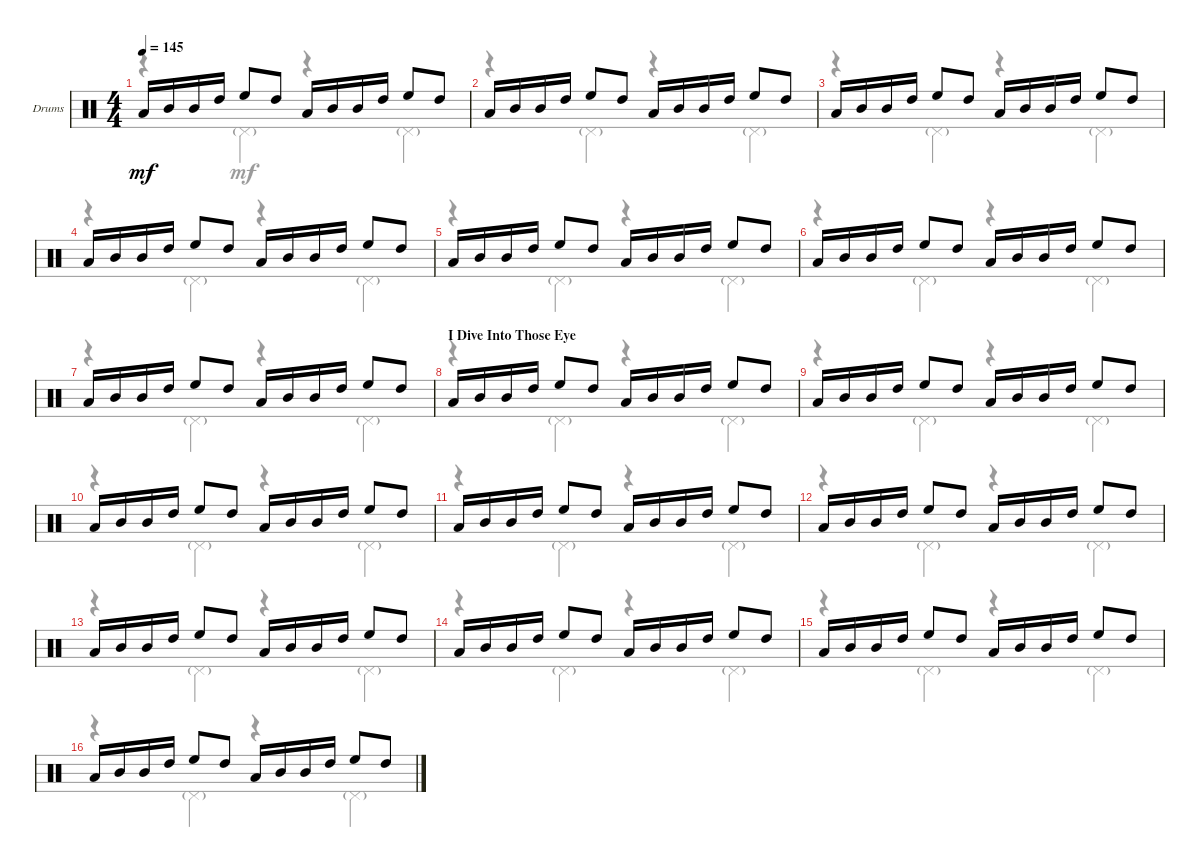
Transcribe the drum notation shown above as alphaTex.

\defaultSystemsLayout 4
\bracketExtendMode groupsimilarinstruments
\firstSystemTrackNameOrientation horizontal
\otherSystemsTrackNameOrientation horizontal
\track ("Drumkit" "Drums") {instrument percussion}
\staff {score}
\articulation defaults
\voice
\ts (4 4)
\tempo 145
\clef neutral
\ks c "Low Tom (hit)".16{dy mf} "Mid Tom (hit)".16 "Mid Tom (hit)".16 "High Tom (hit)".16 "High Floor Tom (hit)".8 "High Tom (hit)".8 "Low Tom (hit)".16 "Mid Tom (hit)".16 "Mid Tom (hit)".16 "High Tom (hit)".16 "High Floor Tom (hit)".8 "High Tom (hit)".8
|
"Low Tom (hit)".16 "Mid Tom (hit)".16 "Mid Tom (hit)".16 "High Tom (hit)".16 "High Floor Tom (hit)".8 "High Tom (hit)".8 "Low Tom (hit)".16 "Mid Tom (hit)".16 "Mid Tom (hit)".16 "High Tom (hit)".16 "High Floor Tom (hit)".8 "High Tom (hit)".8 |
"Low Tom (hit)".16 "Mid Tom (hit)".16 "Mid Tom (hit)".16 "High Tom (hit)".16 "High Floor Tom (hit)".8 "High Tom (hit)".8 "Low Tom (hit)".16 "Mid Tom (hit)".16 "Mid Tom (hit)".16 "High Tom (hit)".16 "High Floor Tom (hit)".8 "High Tom (hit)".8 |
"Low Tom (hit)".16 "Mid Tom (hit)".16 "Mid Tom (hit)".16 "High Tom (hit)".16 "High Floor Tom (hit)".8 "High Tom (hit)".8 "Low Tom (hit)".16 "Mid Tom (hit)".16 "Mid Tom (hit)".16 "High Tom (hit)".16 "High Floor Tom (hit)".8 "High Tom (hit)".8 |
"Low Tom (hit)".16 "Mid Tom (hit)".16 "Mid Tom (hit)".16 "High Tom (hit)".16 "High Floor Tom (hit)".8 "High Tom (hit)".8 "Low Tom (hit)".16 "Mid Tom (hit)".16 "Mid Tom (hit)".16 "High Tom (hit)".16 "High Floor Tom (hit)".8 "High Tom (hit)".8 |
"Low Tom (hit)".16 "Mid Tom (hit)".16 "Mid Tom (hit)".16 "High Tom (hit)".16 "High Floor Tom (hit)".8 "High Tom (hit)".8 "Low Tom (hit)".16 "Mid Tom (hit)".16 "Mid Tom (hit)".16 "High Tom (hit)".16 "High Floor Tom (hit)".8 "High Tom (hit)".8 |
"Low Tom (hit)".16 "Mid Tom (hit)".16 "Mid Tom (hit)".16 "High Tom (hit)".16 "High Floor Tom (hit)".8 "High Tom (hit)".8 "Low Tom (hit)".16 "Mid Tom (hit)".16 "Mid Tom (hit)".16 "High Tom (hit)".16 "High Floor Tom (hit)".8 "High Tom (hit)".8 |
\section ("" "I Dive Into Those Eye")
"Low Tom (hit)".16 "Mid Tom (hit)".16 "Mid Tom (hit)".16 "High Tom (hit)".16 "High Floor Tom (hit)".8 "High Tom (hit)".8 "Low Tom (hit)".16 "Mid Tom (hit)".16 "Mid Tom (hit)".16 "High Tom (hit)".16 "High Floor Tom (hit)".8 "High Tom (hit)".8 |
"Low Tom (hit)".16 "Mid Tom (hit)".16 "Mid Tom (hit)".16 "High Tom (hit)".16 "High Floor Tom (hit)".8 "High Tom (hit)".8 "Low Tom (hit)".16 "Mid Tom (hit)".16 "Mid Tom (hit)".16 "High Tom (hit)".16 "High Floor Tom (hit)".8 "High Tom (hit)".8 |
"Low Tom (hit)".16 "Mid Tom (hit)".16 "Mid Tom (hit)".16 "High Tom (hit)".16 "High Floor Tom (hit)".8 "High Tom (hit)".8 "Low Tom (hit)".16 "Mid Tom (hit)".16 "Mid Tom (hit)".16 "High Tom (hit)".16 "High Floor Tom (hit)".8 "High Tom (hit)".8 |
"Low Tom (hit)".16 "Mid Tom (hit)".16 "Mid Tom (hit)".16 "High Tom (hit)".16 "High Floor Tom (hit)".8 "High Tom (hit)".8 "Low Tom (hit)".16 "Mid Tom (hit)".16 "Mid Tom (hit)".16 "High Tom (hit)".16 "High Floor Tom (hit)".8 "High Tom (hit)".8 |
"Low Tom (hit)".16 "Mid Tom (hit)".16 "Mid Tom (hit)".16 "High Tom (hit)".16 "High Floor Tom (hit)".8 "High Tom (hit)".8 "Low Tom (hit)".16 "Mid Tom (hit)".16 "Mid Tom (hit)".16 "High Tom (hit)".16 "High Floor Tom (hit)".8 "High Tom (hit)".8 |
"Low Tom (hit)".16 "Mid Tom (hit)".16 "Mid Tom (hit)".16 "High Tom (hit)".16 "High Floor Tom (hit)".8 "High Tom (hit)".8 "Low Tom (hit)".16 "Mid Tom (hit)".16 "Mid Tom (hit)".16 "High Tom (hit)".16 "High Floor Tom (hit)".8 "High Tom (hit)".8 |
"Low Tom (hit)".16 "Mid Tom (hit)".16 "Mid Tom (hit)".16 "High Tom (hit)".16 "High Floor Tom (hit)".8 "High Tom (hit)".8 "Low Tom (hit)".16 "Mid Tom (hit)".16 "Mid Tom (hit)".16 "High Tom (hit)".16 "High Floor Tom (hit)".8 "High Tom (hit)".8 |
"Low Tom (hit)".16 "Mid Tom (hit)".16 "Mid Tom (hit)".16 "High Tom (hit)".16 "High Floor Tom (hit)".8 "High Tom (hit)".8 "Low Tom (hit)".16 "Mid Tom (hit)".16 "Mid Tom (hit)".16 "High Tom (hit)".16 "High Floor Tom (hit)".8 "High Tom (hit)".8 |
"Low Tom (hit)".16 "Mid Tom (hit)".16 "Mid Tom (hit)".16 "High Tom (hit)".16 "High Floor Tom (hit)".8 "High Tom (hit)".8 "Low Tom (hit)".16 "Mid Tom (hit)".16 "Mid Tom (hit)".16 "High Tom (hit)".16 "High Floor Tom (hit)".8 "High Tom (hit)".8
\voice
\clef neutral
\ottava regular
\simile none
\ks c
r.4{dy mf} "Pedal Hi-Hat (hit)"{g}.4 r.4 "Pedal Hi-Hat (hit)"{g}.4 |
r.4 "Pedal Hi-Hat (hit)"{g}.4 r.4 "Pedal Hi-Hat (hit)"{g}.4 |
r.4 "Pedal Hi-Hat (hit)"{g}.4 r.4 "Pedal Hi-Hat (hit)"{g}.4 |
r.4 "Pedal Hi-Hat (hit)"{g}.4 r.4 "Pedal Hi-Hat (hit)"{g}.4 |
r.4 "Pedal Hi-Hat (hit)"{g}.4 r.4 "Pedal Hi-Hat (hit)"{g}.4 |
r.4 "Pedal Hi-Hat (hit)"{g}.4 r.4 "Pedal Hi-Hat (hit)"{g}.4 |
r.4 "Pedal Hi-Hat (hit)"{g}.4 r.4 "Pedal Hi-Hat (hit)"{g}.4 |
r.4 "Pedal Hi-Hat (hit)"{g}.4 r.4 "Pedal Hi-Hat (hit)"{g}.4 |
r.4 "Pedal Hi-Hat (hit)"{g}.4 r.4 "Pedal Hi-Hat (hit)"{g}.4 |
r.4 "Pedal Hi-Hat (hit)"{g}.4 r.4 "Pedal Hi-Hat (hit)"{g}.4 |
r.4 "Pedal Hi-Hat (hit)"{g}.4 r.4 "Pedal Hi-Hat (hit)"{g}.4 |
r.4 "Pedal Hi-Hat (hit)"{g}.4 r.4 "Pedal Hi-Hat (hit)"{g}.4 |
r.4 "Pedal Hi-Hat (hit)"{g}.4 r.4 "Pedal Hi-Hat (hit)"{g}.4 |
r.4 "Pedal Hi-Hat (hit)"{g}.4 r.4 "Pedal Hi-Hat (hit)"{g}.4 |
r.4 "Pedal Hi-Hat (hit)"{g}.4 r.4 "Pedal Hi-Hat (hit)"{g}.4 |
r.4 "Pedal Hi-Hat (hit)"{g}.4 r.4 "Pedal Hi-Hat (hit)"{g}.4
